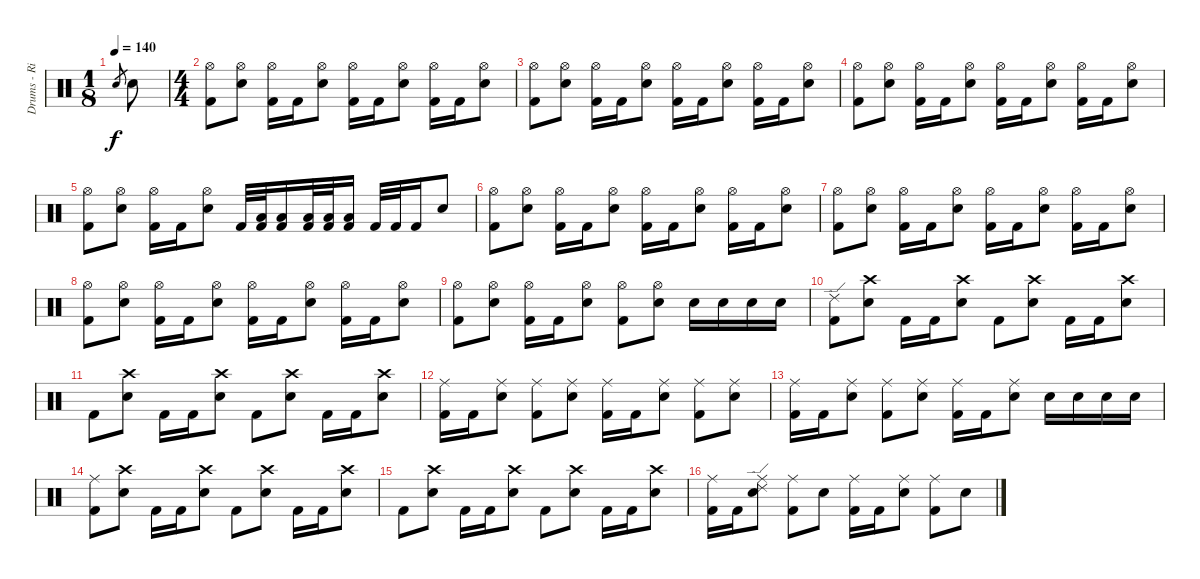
\track ("Drums - Riley" "Drums - Ri") {instrument percussion}
\staff {score}
\articulation defaults
\ts (1 8)
\tempo 140
\clef neutral
\ks c "Electric Snare (hit)".8{gr dy f} "Electric Snare (hit)".8
|
\ts (4 4)
("Kick (hit) 2" "Hi-Hat (open)").8 ("Electric Snare (hit)" "Hi-Hat (open)").8 ("Kick (hit) 2" "Hi-Hat (open)").16 "Kick (hit) 2".16 ("Electric Snare (hit)" "Hi-Hat (open)").8 ("Kick (hit) 2" "Hi-Hat (open)").16 "Kick (hit) 2".16 ("Electric Snare (hit)" "Hi-Hat (open)").8 ("Kick (hit) 2" "Hi-Hat (open)").16 "Kick (hit) 2".16 ("Electric Snare (hit)" "Hi-Hat (open)").8 |
("Kick (hit) 2" "Hi-Hat (open)").8 ("Electric Snare (hit)" "Hi-Hat (open)").8 ("Kick (hit) 2" "Hi-Hat (open)").16 "Kick (hit) 2".16 ("Electric Snare (hit)" "Hi-Hat (open)").8 ("Kick (hit) 2" "Hi-Hat (open)").16 "Kick (hit) 2".16 ("Electric Snare (hit)" "Hi-Hat (open)").8 ("Kick (hit) 2" "Hi-Hat (open)").16 "Kick (hit) 2".16 ("Electric Snare (hit)" "Hi-Hat (open)").8 |
("Kick (hit) 2" "Hi-Hat (open)").8 ("Electric Snare (hit)" "Hi-Hat (open)").8 ("Kick (hit) 2" "Hi-Hat (open)").16 "Kick (hit) 2".16 ("Electric Snare (hit)" "Hi-Hat (open)").8 ("Kick (hit) 2" "Hi-Hat (open)").16 "Kick (hit) 2".16 ("Electric Snare (hit)" "Hi-Hat (open)").8 ("Kick (hit) 2" "Hi-Hat (open)").16 "Kick (hit) 2".16 ("Electric Snare (hit)" "Hi-Hat (open)").8 |
("Kick (hit) 2" "Hi-Hat (open)").8 ("Electric Snare (hit)" "Hi-Hat (open)").8 ("Kick (hit) 2" "Hi-Hat (open)").16 "Kick (hit) 2".16 ("Electric Snare (hit)" "Hi-Hat (open)").8 "Kick (hit) 2".32 ("Kick (hit) 2" "Low Floor Tom (hit)").32 ("Kick (hit) 2" "Low Tom (hit)").16 ("Kick (hit) 2" "Low Floor Tom (hit)").32 ("Kick (hit) 2" "Low Tom (hit)").32 ("Kick (hit) 2" "Low Floor Tom (hit)").16 "Kick (hit) 2".32 "Kick (hit) 2".32 "Kick (hit) 2".16 "Electric Snare (hit)".8 |
("Kick (hit) 2" "Hi-Hat (open)").8 ("Electric Snare (hit)" "Hi-Hat (open)").8 ("Kick (hit) 2" "Hi-Hat (open)").16 "Kick (hit) 2".16 ("Electric Snare (hit)" "Hi-Hat (open)").8 ("Kick (hit) 2" "Hi-Hat (open)").16 "Kick (hit) 2".16 ("Electric Snare (hit)" "Hi-Hat (open)").8 ("Kick (hit) 2" "Hi-Hat (open)").16 "Kick (hit) 2".16 ("Electric Snare (hit)" "Hi-Hat (open)").8 |
("Kick (hit) 2" "Hi-Hat (open)").8 ("Electric Snare (hit)" "Hi-Hat (open)").8 ("Kick (hit) 2" "Hi-Hat (open)").16 "Kick (hit) 2".16 ("Electric Snare (hit)" "Hi-Hat (open)").8 ("Kick (hit) 2" "Hi-Hat (open)").16 "Kick (hit) 2".16 ("Electric Snare (hit)" "Hi-Hat (open)").8 ("Kick (hit) 2" "Hi-Hat (open)").16 "Kick (hit) 2".16 ("Electric Snare (hit)" "Hi-Hat (open)").8 |
("Kick (hit) 2" "Hi-Hat (open)").8 ("Electric Snare (hit)" "Hi-Hat (open)").8 ("Kick (hit) 2" "Hi-Hat (open)").16 "Kick (hit) 2".16 ("Electric Snare (hit)" "Hi-Hat (open)").8 ("Kick (hit) 2" "Hi-Hat (open)").16 "Kick (hit) 2".16 ("Electric Snare (hit)" "Hi-Hat (open)").8 ("Kick (hit) 2" "Hi-Hat (open)").16 "Kick (hit) 2".16 ("Electric Snare (hit)" "Hi-Hat (open)").8 |
("Kick (hit) 2" "Hi-Hat (open)").8 ("Electric Snare (hit)" "Hi-Hat (open)").8 ("Kick (hit) 2" "Hi-Hat (open)").16 "Kick (hit) 2".16 ("Electric Snare (hit)" "Hi-Hat (open)").8 ("Kick (hit) 2" "Hi-Hat (open)").8 ("Electric Snare (hit)" "Hi-Hat (open)").8 "Electric Snare (hit)".16 "Electric Snare (hit)".16 "Electric Snare (hit)".16 "Electric Snare (hit)".16 |
("Kick (hit) 2" "Ride (edge) 2").8 ("Electric Snare (hit)" "Crash high (hit)").8 "Kick (hit) 2".16 "Kick (hit) 2".16 ("Electric Snare (hit)" "Crash high (hit)").8 "Kick (hit) 2".8 ("Electric Snare (hit)" "Crash high (hit)").8 "Kick (hit) 2".16 "Kick (hit) 2".16 ("Electric Snare (hit)" "Crash high (hit)").8 |
"Kick (hit) 2".8 ("Electric Snare (hit)" "Crash high (hit)").8 "Kick (hit) 2".16 "Kick (hit) 2".16 ("Electric Snare (hit)" "Crash high (hit)").8 "Kick (hit) 2".8 ("Electric Snare (hit)" "Crash high (hit)").8 "Kick (hit) 2".16 "Kick (hit) 2".16 ("Electric Snare (hit)" "Crash high (hit)").8 |
("Kick (hit) 2" "Ride (middle)").16 "Kick (hit) 2".16 ("Electric Snare (hit)" "Ride (middle)").8 ("Kick (hit) 2" "Ride (middle)").8 ("Electric Snare (hit)" "Ride (middle)").8 ("Kick (hit) 2" "Ride (middle)").16 "Kick (hit) 2".16 ("Electric Snare (hit)" "Ride (middle)").8 ("Kick (hit) 2" "Ride (middle)").8 ("Electric Snare (hit)" "Ride (middle)").8 |
("Kick (hit) 2" "Ride (middle)").16 "Kick (hit) 2".16 ("Electric Snare (hit)" "Ride (middle)").8 ("Kick (hit) 2" "Ride (middle)").8 ("Electric Snare (hit)" "Ride (middle)").8 ("Kick (hit) 2" "Ride (middle)").16 "Kick (hit) 2".16 ("Electric Snare (hit)" "Ride (middle)").8 "Electric Snare (hit)".16 "Electric Snare (hit)".16 "Electric Snare (hit)".16 "Electric Snare (hit)".16 |
("Kick (hit) 2" "Ride (middle)").8 ("Electric Snare (hit)" "Crash high (hit)").8 "Kick (hit) 2".16 "Kick (hit) 2".16 ("Electric Snare (hit)" "Crash high (hit)").8 "Kick (hit) 2".8 ("Electric Snare (hit)" "Crash high (hit)").8 "Kick (hit) 2".16 "Kick (hit) 2".16 ("Electric Snare (hit)" "Crash high (hit)").8 |
"Kick (hit) 2".8 ("Electric Snare (hit)" "Crash high (hit)").8 "Kick (hit) 2".16 "Kick (hit) 2".16 ("Electric Snare (hit)" "Crash high (hit)").8 "Kick (hit) 2".8 ("Electric Snare (hit)" "Crash high (hit)").8 "Kick (hit) 2".16 "Kick (hit) 2".16 ("Electric Snare (hit)" "Crash high (hit)").8 |
("Kick (hit) 2" "Ride (middle)").16 "Kick (hit) 2".16 ("Ride (edge) 2" "Electric Snare (hit)" "Ride (middle)").8 ("Kick (hit) 2" "Ride (middle)").8 "Electric Snare (hit)".8 ("Kick (hit) 2" "Ride (middle)").16 "Kick (hit) 2".16 ("Electric Snare (hit)" "Ride (middle)").8 ("Kick (hit) 2" "Ride (middle)").8 "Electric Snare (hit)".8
